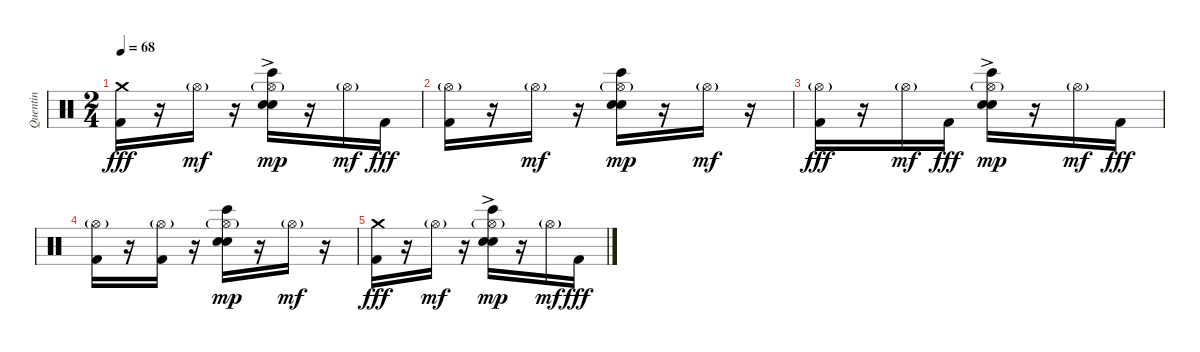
\track ("Quentin" "Quentin") {instrument percussion}
\staff {score}
\articulation defaults
\ts (2 4)
\tempo 68
\clef neutral
\ks c
("Crash medium (hit)" "Kick (hit) 2").16{dy fff} r.16 "Hi-Hat (open)"{g}.16{dy mf} r.16 ("Hi-Hat (open)"{g} "Electric Snare (hit)"{ac} "Snare (hit) 2" "Bongo High (hit)").16{dy mp} r.16 "Hi-Hat (open)"{g}.16{dy mf} "Kick (hit) 2".16{dy fff} |
("Hi-Hat (open)"{g} "Kick (hit) 2").16 r.16 "Hi-Hat (open)"{g}.16{dy mf} r.16 ("Hi-Hat (open)"{g} "Electric Snare (hit)" "Snare (hit) 2" "Bongo High (hit)").16{dy mp} r.16 "Hi-Hat (open)"{g}.16{dy mf} r.16 |
("Hi-Hat (open)"{g} "Kick (hit) 2").16{dy fff} r.16 "Hi-Hat (open)"{g}.16{dy mf} "Kick (hit) 2".16{dy fff} ("Hi-Hat (open)"{g} "Electric Snare (hit)"{ac} "Snare (hit) 2" "Bongo High (hit)").16{dy mp} r.16 "Hi-Hat (open)"{g}.16{dy mf} "Kick (hit) 2".16{dy fff} |
("Hi-Hat (open)"{g} "Kick (hit) 2").16 r.16 ("Hi-Hat (open)"{g} "Kick (hit) 2").16 r.16 ("Hi-Hat (open)"{g} "Electric Snare (hit)" "Snare (hit) 2" "Bongo High (hit)").16{dy mp} r.16 "Hi-Hat (open)"{g}.16{dy mf} r.16 |
("Crash medium (hit)" "Kick (hit) 2").16{dy fff} r.16 "Hi-Hat (open)"{g}.16{dy mf} r.16 ("Hi-Hat (open)"{g} "Electric Snare (hit)"{ac} "Snare (hit) 2" "Bongo High (hit)").16{dy mp} r.16 "Hi-Hat (open)"{g}.16{dy mf} "Kick (hit) 2".16{dy fff}
